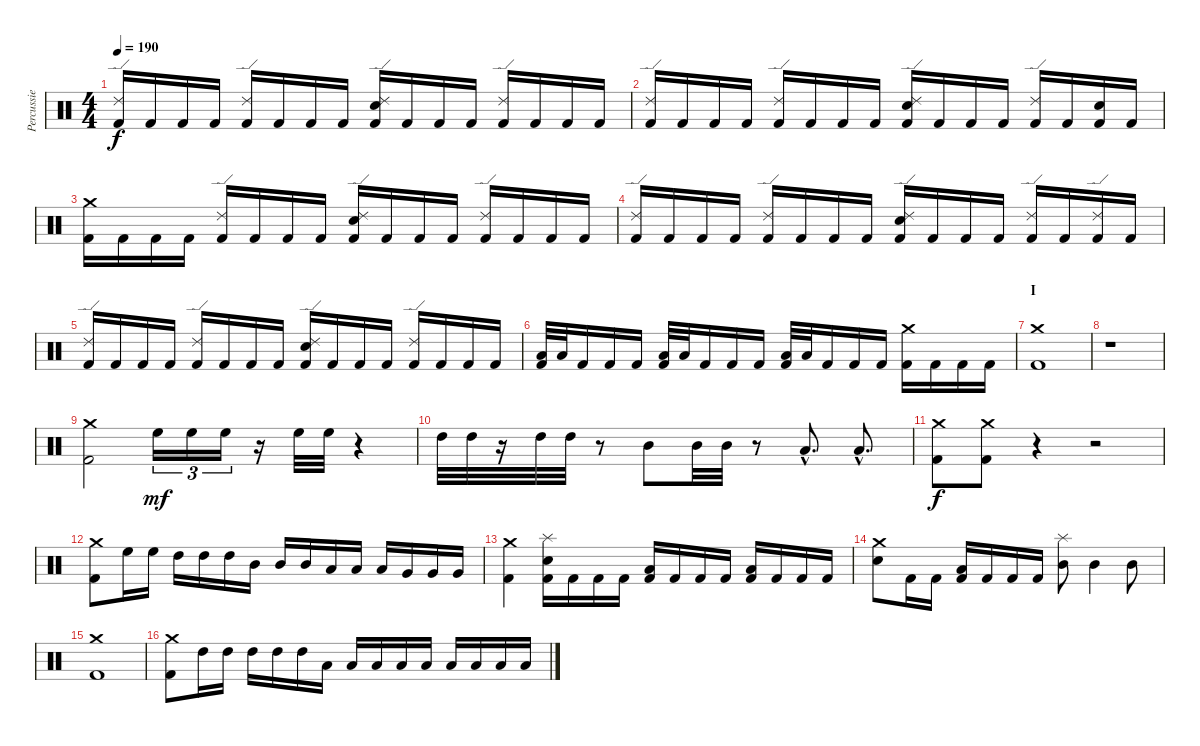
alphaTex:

\track ("Percussie" "Percussie") {instrument percussion}
\staff {score}
\articulation defaults
\ts (4 4)
\tempo 190
\clef neutral
\ks c
("Ride (edge) 2" "Kick (hit) 2").16{dy f} "Kick (hit) 2".16 "Kick (hit) 2".16 "Kick (hit) 2".16 ("Ride (edge) 2" "Kick (hit) 2").16 "Kick (hit) 2".16 "Kick (hit) 2".16 "Kick (hit) 2".16 ("Ride (edge) 2" "Electric Snare (hit)" "Kick (hit) 2").16 "Kick (hit) 2".16 "Kick (hit) 2".16 "Kick (hit) 2".16 ("Ride (edge) 2" "Kick (hit) 2").16 "Kick (hit) 2".16 "Kick (hit) 2".16 "Kick (hit) 2".16 |
("Ride (edge) 2" "Kick (hit) 2").16 "Kick (hit) 2".16 "Kick (hit) 2".16 "Kick (hit) 2".16 ("Ride (edge) 2" "Kick (hit) 2").16 "Kick (hit) 2".16 "Kick (hit) 2".16 "Kick (hit) 2".16 ("Ride (edge) 2" "Electric Snare (hit)" "Kick (hit) 2").16 "Kick (hit) 2".16 "Kick (hit) 2".16 "Kick (hit) 2".16 ("Ride (edge) 2" "Kick (hit) 2").16 "Kick (hit) 2".16 ("Electric Snare (hit)" "Kick (hit) 2").16 "Kick (hit) 2".16 |
("Crash medium (hit)" "Kick (hit) 2").16 "Kick (hit) 2".16 "Kick (hit) 2".16 "Kick (hit) 2".16 ("Ride (edge) 2" "Kick (hit) 2").16 "Kick (hit) 2".16 "Kick (hit) 2".16 "Kick (hit) 2".16 ("Ride (edge) 2" "Electric Snare (hit)" "Kick (hit) 2").16 "Kick (hit) 2".16 "Kick (hit) 2".16 "Kick (hit) 2".16 ("Ride (edge) 2" "Kick (hit) 2").16 "Kick (hit) 2".16 "Kick (hit) 2".16 "Kick (hit) 2".16 |
("Ride (edge) 2" "Kick (hit) 2").16 "Kick (hit) 2".16 "Kick (hit) 2".16 "Kick (hit) 2".16 ("Ride (edge) 2" "Kick (hit) 2").16 "Kick (hit) 2".16 "Kick (hit) 2".16 "Kick (hit) 2".16 ("Ride (edge) 2" "Electric Snare (hit)" "Kick (hit) 2").16 "Kick (hit) 2".16 "Kick (hit) 2".16 "Kick (hit) 2".16 ("Ride (edge) 2" "Kick (hit) 2").16 "Kick (hit) 2".16 ("Ride (edge) 2" "Kick (hit) 2").16 "Kick (hit) 2".16 |
("Ride (edge) 2" "Kick (hit) 2").16 "Kick (hit) 2".16 "Kick (hit) 2".16 "Kick (hit) 2".16 ("Ride (edge) 2" "Kick (hit) 2").16 "Kick (hit) 2".16 "Kick (hit) 2".16 "Kick (hit) 2".16 ("Ride (edge) 2" "Electric Snare (hit)" "Kick (hit) 2").16 "Kick (hit) 2".16 "Kick (hit) 2".16 "Kick (hit) 2".16 ("Ride (edge) 2" "Kick (hit) 2").16 "Kick (hit) 2".16 "Kick (hit) 2".16 "Kick (hit) 2".16 |
("Low Tom (hit)" "Kick (hit) 2").32 "Low Tom (hit)".32 "Kick (hit) 2".16 "Kick (hit) 2".16 "Kick (hit) 2".16 ("Low Tom (hit)" "Kick (hit) 2").32 "Low Tom (hit)".32 "Kick (hit) 2".16 "Kick (hit) 2".16 "Kick (hit) 2".16 ("Low Tom (hit)" "Kick (hit) 2").32 "Low Tom (hit)".32 "Kick (hit) 2".16 "Kick (hit) 2".16 "Kick (hit) 2".16 ("Crash medium (hit)" "Kick (hit) 2").16 "Kick (hit) 2".16 "Kick (hit) 2".16 "Kick (hit) 2".16 |
\section ("" "I")
("Crash medium (hit)" "Kick (hit) 2").1 |
r.1 |
("Crash medium (hit)" "Kick (hit) 2").2 "High Floor Tom (hit)".16{tu (3 2) dy mf} "High Floor Tom (hit)".16{tu (3 2)} "High Floor Tom (hit)".16{tu (3 2)} r.16 "High Floor Tom (hit)".32 "High Floor Tom (hit)".32 r.4 |
"High Tom (hit)".32 "High Tom (hit)".32 r.16 "High Tom (hit)".32 "High Tom (hit)".32 r.8 "Mid Tom (hit)".8 "Mid Tom (hit)".32 "Mid Tom (hit)".32 r.8 "Low Tom (hit)"{hac}.8{d} "Low Tom (hit)"{hac}.8{d} |
("Crash medium (hit)" "Kick (hit) 2").8{dy f} ("Crash medium (hit)" "Kick (hit) 2").8 r.4 r.2 |
("Crash medium (hit)" "Kick (hit) 2").8 "High Floor Tom (hit)".16 "High Floor Tom (hit)".16 "High Tom (hit)".16 "High Tom (hit)".16 "High Tom (hit)".16 "Mid Tom (hit)".16 "Mid Tom (hit)".16 "Mid Tom (hit)".16 "Low Tom (hit)".16 "Low Tom (hit)".16 "Low Tom (hit)".16 "Very Low Tom (hit)".16 "Very Low Tom (hit)".16 "Very Low Tom (hit)".16 |
("Crash medium (hit)" "Kick (hit) 2").4 ("Splash (hit)" "Electric Snare (hit)" "Kick (hit) 2").16 "Kick (hit) 2".16 "Kick (hit) 2".16 "Kick (hit) 2".16 ("Low Tom (hit)" "Kick (hit) 2").16 "Kick (hit) 2".16 "Kick (hit) 2".16 "Kick (hit) 2".16 ("Low Tom (hit)" "Kick (hit) 2").16 "Kick (hit) 2".16 "Kick (hit) 2".16 "Kick (hit) 2".16 |
("Crash medium (hit)" "Electric Snare (hit)").8 "Kick (hit) 2".16 "Kick (hit) 2".16 ("Low Tom (hit)" "Kick (hit) 2").16 "Kick (hit) 2".16 "Kick (hit) 2".16 "Kick (hit) 2".16 ("Splash (hit)" "Mid Tom (hit)").8 "Mid Tom (hit)".4 "Mid Tom (hit)".8 |
("Crash medium (hit)" "Kick (hit) 2").1 |
("Crash medium (hit)" "Kick (hit) 2").8 "High Tom (hit)".16 "High Tom (hit)".16 "High Tom (hit)".16 "High Tom (hit)".16 "High Tom (hit)".16 "Low Tom (hit)".16 "Low Tom (hit)".16 "Low Tom (hit)".16 "Low Tom (hit)".16 "Low Tom (hit)".16 "Low Floor Tom (hit)".16 "Low Floor Tom (hit)".16 "Low Floor Tom (hit)".16 "Low Floor Tom (hit)".16
